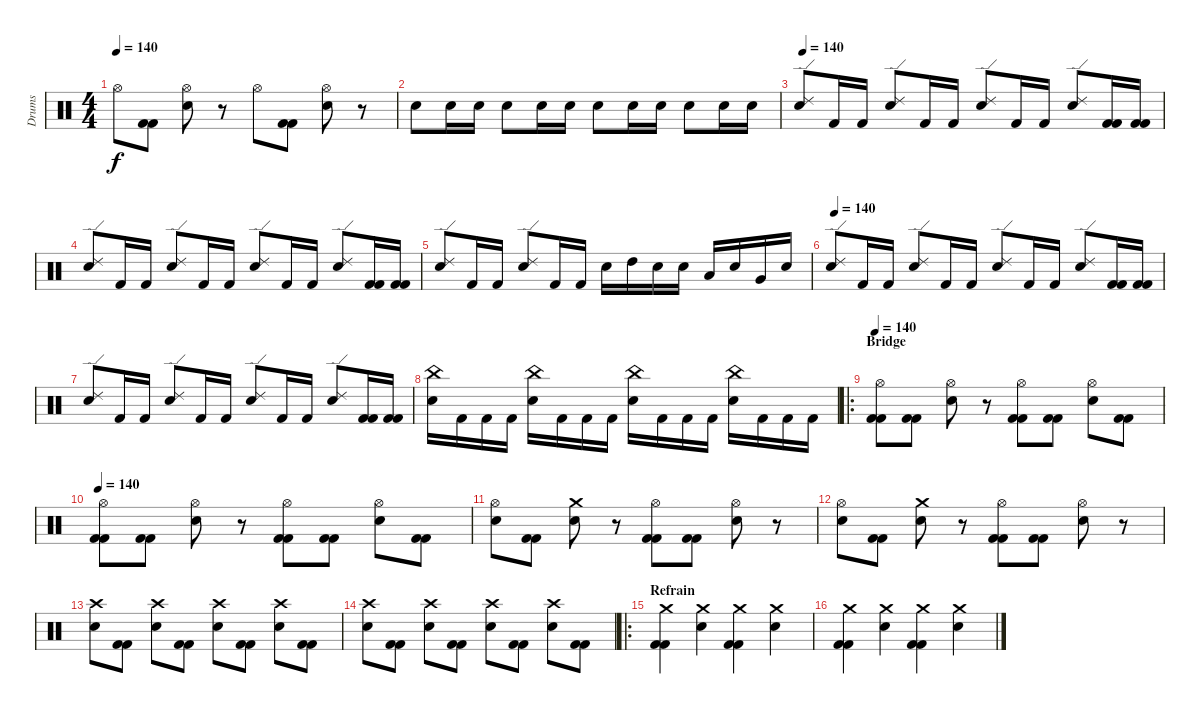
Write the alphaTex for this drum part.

\track ("Drums" "Drums") {instrument percussion}
\staff {score}
\articulation defaults
\ts (4 4)
\tempo 140
\clef neutral
\ks c "Hi-Hat (open)".8{dy f}
("Kick (hit) 2" "Kick (hit) 2").8 ("Electric Snare (hit)" "Hi-Hat (open)").8 r.8 "Hi-Hat (open)".8 ("Kick (hit) 2" "Kick (hit) 2").8 ("Electric Snare (hit)" "Hi-Hat (open)").8 r.8 |
"Electric Snare (hit)".8 "Electric Snare (hit)".16 "Electric Snare (hit)".16 "Electric Snare (hit)".8 "Electric Snare (hit)".16 "Electric Snare (hit)".16 "Electric Snare (hit)".8 "Electric Snare (hit)".16 "Electric Snare (hit)".16 "Electric Snare (hit)".8 "Electric Snare (hit)".16 "Electric Snare (hit)".16 |
\tempo 140
("Ride (edge) 2" "Electric Snare (hit)").8 "Kick (hit) 2".16 "Kick (hit) 2".16 ("Ride (edge) 2" "Electric Snare (hit)").8 "Kick (hit) 2".16 "Kick (hit) 2".16 ("Ride (edge) 2" "Electric Snare (hit)").8 "Kick (hit) 2".16 "Kick (hit) 2".16 ("Ride (edge) 2" "Electric Snare (hit)").8 ("Kick (hit) 2" "Kick (hit) 2").16 ("Kick (hit) 2" "Kick (hit) 2").16 |
("Ride (edge) 2" "Electric Snare (hit)").8 "Kick (hit) 2".16 "Kick (hit) 2".16 ("Ride (edge) 2" "Electric Snare (hit)").8 "Kick (hit) 2".16 "Kick (hit) 2".16 ("Ride (edge) 2" "Electric Snare (hit)").8 "Kick (hit) 2".16 "Kick (hit) 2".16 ("Ride (edge) 2" "Electric Snare (hit)").8 ("Kick (hit) 2" "Kick (hit) 2").16 ("Kick (hit) 2" "Kick (hit) 2").16 |
("Ride (edge) 2" "Electric Snare (hit)").8 "Kick (hit) 2".16 "Kick (hit) 2".16 ("Ride (edge) 2" "Electric Snare (hit)").8 "Kick (hit) 2".16 "Kick (hit) 2".16 "Electric Snare (hit)".16 "High Tom (hit)".16 "Electric Snare (hit)".16 "Electric Snare (hit)".16 "Low Tom (hit)".16 "Electric Snare (hit)".16 "Very Low Tom (hit)".16 "Electric Snare (hit)".16 |
\tempo 140
("Ride (edge) 2" "Electric Snare (hit)").8 "Kick (hit) 2".16 "Kick (hit) 2".16 ("Ride (edge) 2" "Electric Snare (hit)").8 "Kick (hit) 2".16 "Kick (hit) 2".16 ("Ride (edge) 2" "Electric Snare (hit)").8 "Kick (hit) 2".16 "Kick (hit) 2".16 ("Ride (edge) 2" "Electric Snare (hit)").8 ("Kick (hit) 2" "Kick (hit) 2").16 ("Kick (hit) 2" "Kick (hit) 2").16 |
("Ride (edge) 2" "Electric Snare (hit)").8 "Kick (hit) 2".16 "Kick (hit) 2".16 ("Ride (edge) 2" "Electric Snare (hit)").8 "Kick (hit) 2".16 "Kick (hit) 2".16 ("Ride (edge) 2" "Electric Snare (hit)").8 "Kick (hit) 2".16 "Kick (hit) 2".16 ("Ride (edge) 2" "Electric Snare (hit)").8 ("Kick (hit) 2" "Kick (hit) 2").16 ("Kick (hit) 2" "Kick (hit) 2").16 |
("China (hit)" "Electric Snare (hit)").16 "Kick (hit) 2".16 "Kick (hit) 2".16 "Kick (hit) 2".16 ("China (hit)" "Electric Snare (hit)").16 "Kick (hit) 2".16 "Kick (hit) 2".16 "Kick (hit) 2".16 ("China (hit)" "Electric Snare (hit)").16 "Kick (hit) 2".16 "Kick (hit) 2".16 "Kick (hit) 2".16 ("China (hit)" "Electric Snare (hit)").16 "Kick (hit) 2".16 "Kick (hit) 2".16 "Kick (hit) 2".16 |
\ro
\section ("" "Bridge ")
\tempo 140
("Hi-Hat (open)" "Kick (hit) 2" "Kick (hit) 2").8 ("Kick (hit) 2" "Kick (hit) 2").8 ("Hi-Hat (open)" "Electric Snare (hit)").8 r.8 ("Kick (hit) 2" "Kick (hit) 2" "Hi-Hat (open)").8 ("Kick (hit) 2" "Kick (hit) 2").8 ("Electric Snare (hit)" "Hi-Hat (open)").8 ("Kick (hit) 2" "Kick (hit) 2").8 |
\tempo 140
("Hi-Hat (open)" "Kick (hit) 2" "Kick (hit) 2").8 ("Kick (hit) 2" "Kick (hit) 2").8 ("Hi-Hat (open)" "Electric Snare (hit)").8 r.8 ("Kick (hit) 2" "Kick (hit) 2" "Hi-Hat (open)").8 ("Kick (hit) 2" "Kick (hit) 2").8 ("Electric Snare (hit)" "Hi-Hat (open)").8 ("Kick (hit) 2" "Kick (hit) 2").8 |
("Hi-Hat (open)" "Electric Snare (hit)").8 ("Kick (hit) 2" "Kick (hit) 2").8 ("Crash medium (hit)" "Electric Snare (hit)").8 r.8 ("Hi-Hat (open)" "Kick (hit) 2" "Kick (hit) 2").8 ("Kick (hit) 2" "Kick (hit) 2").8 ("Electric Snare (hit)" "Hi-Hat (open)").8 r.8 |
("Hi-Hat (open)" "Electric Snare (hit)").8 ("Kick (hit) 2" "Kick (hit) 2").8 ("Crash medium (hit)" "Electric Snare (hit)").8 r.8 ("Hi-Hat (open)" "Kick (hit) 2" "Kick (hit) 2").8 ("Kick (hit) 2" "Kick (hit) 2").8 ("Electric Snare (hit)" "Hi-Hat (open)").8 r.8 |
("Crash high (hit)" "Electric Snare (hit)").8 ("Kick (hit) 2" "Kick (hit) 2").8 ("Crash high (hit)" "Electric Snare (hit)").8 ("Kick (hit) 2" "Kick (hit) 2").8 ("Crash high (hit)" "Electric Snare (hit)").8 ("Kick (hit) 2" "Kick (hit) 2").8 ("Crash high (hit)" "Electric Snare (hit)").8 ("Kick (hit) 2" "Kick (hit) 2").8 |
("Crash high (hit)" "Electric Snare (hit)").8 ("Kick (hit) 2" "Kick (hit) 2").8 ("Crash high (hit)" "Electric Snare (hit)").8 ("Kick (hit) 2" "Kick (hit) 2").8 ("Crash high (hit)" "Electric Snare (hit)").8 ("Kick (hit) 2" "Kick (hit) 2").8 ("Crash high (hit)" "Electric Snare (hit)").8 ("Kick (hit) 2" "Kick (hit) 2").8 |
\ro
\section ("" "Refrain")
("Crash medium (hit)" "Kick (hit) 2" "Kick (hit) 2").4 ("Electric Snare (hit)" "Crash medium (hit)").4 ("Kick (hit) 2" "Kick (hit) 2" "Crash medium (hit)").4 ("Crash medium (hit)" "Electric Snare (hit)").4 |
("Crash medium (hit)" "Kick (hit) 2" "Kick (hit) 2").4 ("Electric Snare (hit)" "Crash medium (hit)").4 ("Kick (hit) 2" "Kick (hit) 2" "Crash medium (hit)").4 ("Crash medium (hit)" "Electric Snare (hit)").4
